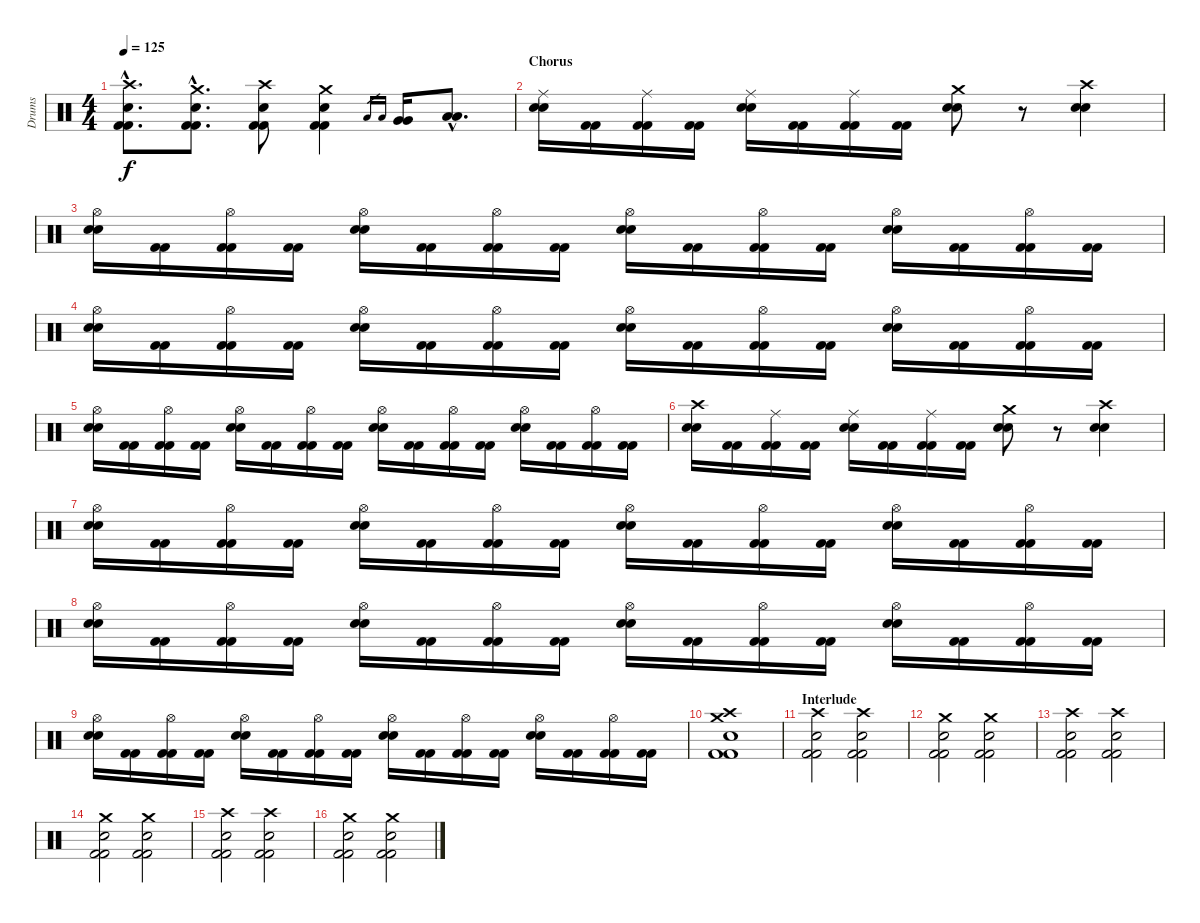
\track ("Drums" "Drums") {instrument percussion}
\staff {score}
\articulation defaults
\ts (4 4)
\tempo 125
\clef neutral
\ks c
("Crash high (hit)"{hac} "Snare (hit) 2"{hac} "Kick (hit) 2"{hac} "Kick (hit) 2"{hac}).8{d dy f} ("Crash medium (hit)"{hac} "Snare (hit) 2"{hac} "Kick (hit) 2"{hac} "Kick (hit) 2"{hac}).8{d} ("Crash high (hit)" "Snare (hit) 2" "Kick (hit) 2" "Kick (hit) 2").8 ("Crash medium (hit)" "Snare (hit) 2" "Kick (hit) 2" "Kick (hit) 2").4 "Low Floor Tom (hit)".16{gr} "Low Floor Tom (hit)".16{gr} ("Very Low Tom (hit)" "Very Low Tom (hit)").16 ("Low Tom (hit)"{hac} "Low Tom (hit)"{hac}).8{d} |
\section ("" "Chorus")
("Ride (middle)" "Snare (hit) 2" "Snare (hit) 2").16 ("Kick (hit) 2" "Kick (hit) 2").16 ("Ride (middle)" "Kick (hit) 2" "Kick (hit) 2").16 ("Kick (hit) 2" "Kick (hit) 2").16 ("Ride (middle)" "Snare (hit) 2" "Snare (hit) 2").16 ("Kick (hit) 2" "Kick (hit) 2").16 ("Ride (middle)" "Kick (hit) 2" "Kick (hit) 2").16 ("Kick (hit) 2" "Kick (hit) 2").16 ("Crash medium (hit)" "Snare (hit) 2" "Snare (hit) 2").8 r.8 ("Crash high (hit)" "Snare (hit) 2" "Snare (hit) 2").4 |
("Hi-Hat (open)" "Snare (hit) 2" "Snare (hit) 2").16 ("Kick (hit) 2" "Kick (hit) 2").16 ("Hi-Hat (open)" "Kick (hit) 2" "Kick (hit) 2").16 ("Kick (hit) 2" "Kick (hit) 2").16 ("Hi-Hat (open)" "Snare (hit) 2" "Snare (hit) 2").16 ("Kick (hit) 2" "Kick (hit) 2").16 ("Hi-Hat (open)" "Kick (hit) 2" "Kick (hit) 2").16 ("Kick (hit) 2" "Kick (hit) 2").16 ("Hi-Hat (open)" "Snare (hit) 2" "Snare (hit) 2").16 ("Kick (hit) 2" "Kick (hit) 2").16 ("Hi-Hat (open)" "Kick (hit) 2" "Kick (hit) 2").16 ("Kick (hit) 2" "Kick (hit) 2").16 ("Hi-Hat (open)" "Snare (hit) 2" "Snare (hit) 2").16 ("Kick (hit) 2" "Kick (hit) 2").16 ("Hi-Hat (open)" "Kick (hit) 2" "Kick (hit) 2").16 ("Kick (hit) 2" "Kick (hit) 2").16 |
("Hi-Hat (open)" "Snare (hit) 2" "Snare (hit) 2").16 ("Kick (hit) 2" "Kick (hit) 2").16 ("Hi-Hat (open)" "Kick (hit) 2" "Kick (hit) 2").16 ("Kick (hit) 2" "Kick (hit) 2").16 ("Hi-Hat (open)" "Snare (hit) 2" "Snare (hit) 2").16 ("Kick (hit) 2" "Kick (hit) 2").16 ("Hi-Hat (open)" "Kick (hit) 2" "Kick (hit) 2").16 ("Kick (hit) 2" "Kick (hit) 2").16 ("Hi-Hat (open)" "Snare (hit) 2" "Snare (hit) 2").16 ("Kick (hit) 2" "Kick (hit) 2").16 ("Hi-Hat (open)" "Kick (hit) 2" "Kick (hit) 2").16 ("Kick (hit) 2" "Kick (hit) 2").16 ("Hi-Hat (open)" "Snare (hit) 2" "Snare (hit) 2").16 ("Kick (hit) 2" "Kick (hit) 2").16 ("Hi-Hat (open)" "Kick (hit) 2" "Kick (hit) 2").16 ("Kick (hit) 2" "Kick (hit) 2").16 |
("Hi-Hat (open)" "Snare (hit) 2" "Snare (hit) 2").16 ("Kick (hit) 2" "Kick (hit) 2").16 ("Hi-Hat (open)" "Kick (hit) 2" "Kick (hit) 2").16 ("Kick (hit) 2" "Kick (hit) 2").16 ("Hi-Hat (open)" "Snare (hit) 2" "Snare (hit) 2").16 ("Kick (hit) 2" "Kick (hit) 2").16 ("Hi-Hat (open)" "Kick (hit) 2" "Kick (hit) 2").16 ("Kick (hit) 2" "Kick (hit) 2").16 ("Hi-Hat (open)" "Snare (hit) 2" "Snare (hit) 2").16 ("Kick (hit) 2" "Kick (hit) 2").16 ("Hi-Hat (open)" "Kick (hit) 2" "Kick (hit) 2").16 ("Kick (hit) 2" "Kick (hit) 2").16 ("Hi-Hat (open)" "Snare (hit) 2" "Snare (hit) 2").16 ("Kick (hit) 2" "Kick (hit) 2").16 ("Hi-Hat (open)" "Kick (hit) 2" "Kick (hit) 2").16 ("Kick (hit) 2" "Kick (hit) 2").16 |
("Crash high (hit)" "Snare (hit) 2" "Snare (hit) 2").16 ("Kick (hit) 2" "Kick (hit) 2").16 ("Ride (middle)" "Kick (hit) 2" "Kick (hit) 2").16 ("Kick (hit) 2" "Kick (hit) 2").16 ("Ride (middle)" "Snare (hit) 2" "Snare (hit) 2").16 ("Kick (hit) 2" "Kick (hit) 2").16 ("Ride (middle)" "Kick (hit) 2" "Kick (hit) 2").16 ("Kick (hit) 2" "Kick (hit) 2").16 ("Crash medium (hit)" "Snare (hit) 2" "Snare (hit) 2").8 r.8 ("Crash high (hit)" "Snare (hit) 2" "Snare (hit) 2").4 |
("Hi-Hat (open)" "Snare (hit) 2" "Snare (hit) 2").16 ("Kick (hit) 2" "Kick (hit) 2").16 ("Hi-Hat (open)" "Kick (hit) 2" "Kick (hit) 2").16 ("Kick (hit) 2" "Kick (hit) 2").16 ("Hi-Hat (open)" "Snare (hit) 2" "Snare (hit) 2").16 ("Kick (hit) 2" "Kick (hit) 2").16 ("Hi-Hat (open)" "Kick (hit) 2" "Kick (hit) 2").16 ("Kick (hit) 2" "Kick (hit) 2").16 ("Hi-Hat (open)" "Snare (hit) 2" "Snare (hit) 2").16 ("Kick (hit) 2" "Kick (hit) 2").16 ("Hi-Hat (open)" "Kick (hit) 2" "Kick (hit) 2").16 ("Kick (hit) 2" "Kick (hit) 2").16 ("Hi-Hat (open)" "Snare (hit) 2" "Snare (hit) 2").16 ("Kick (hit) 2" "Kick (hit) 2").16 ("Hi-Hat (open)" "Kick (hit) 2" "Kick (hit) 2").16 ("Kick (hit) 2" "Kick (hit) 2").16 |
("Hi-Hat (open)" "Snare (hit) 2" "Snare (hit) 2").16 ("Kick (hit) 2" "Kick (hit) 2").16 ("Hi-Hat (open)" "Kick (hit) 2" "Kick (hit) 2").16 ("Kick (hit) 2" "Kick (hit) 2").16 ("Hi-Hat (open)" "Snare (hit) 2" "Snare (hit) 2").16 ("Kick (hit) 2" "Kick (hit) 2").16 ("Hi-Hat (open)" "Kick (hit) 2" "Kick (hit) 2").16 ("Kick (hit) 2" "Kick (hit) 2").16 ("Hi-Hat (open)" "Snare (hit) 2" "Snare (hit) 2").16 ("Kick (hit) 2" "Kick (hit) 2").16 ("Hi-Hat (open)" "Kick (hit) 2" "Kick (hit) 2").16 ("Kick (hit) 2" "Kick (hit) 2").16 ("Hi-Hat (open)" "Snare (hit) 2" "Snare (hit) 2").16 ("Kick (hit) 2" "Kick (hit) 2").16 ("Hi-Hat (open)" "Kick (hit) 2" "Kick (hit) 2").16 ("Kick (hit) 2" "Kick (hit) 2").16 |
("Hi-Hat (open)" "Snare (hit) 2" "Snare (hit) 2").16 ("Kick (hit) 2" "Kick (hit) 2").16 ("Hi-Hat (open)" "Kick (hit) 2" "Kick (hit) 2").16 ("Kick (hit) 2" "Kick (hit) 2").16 ("Hi-Hat (open)" "Snare (hit) 2" "Snare (hit) 2").16 ("Kick (hit) 2" "Kick (hit) 2").16 ("Hi-Hat (open)" "Kick (hit) 2" "Kick (hit) 2").16 ("Kick (hit) 2" "Kick (hit) 2").16 ("Hi-Hat (open)" "Snare (hit) 2" "Snare (hit) 2").16 ("Kick (hit) 2" "Kick (hit) 2").16 ("Hi-Hat (open)" "Kick (hit) 2" "Kick (hit) 2").16 ("Kick (hit) 2" "Kick (hit) 2").16 ("Hi-Hat (open)" "Snare (hit) 2" "Snare (hit) 2").16 ("Kick (hit) 2" "Kick (hit) 2").16 ("Hi-Hat (open)" "Kick (hit) 2" "Kick (hit) 2").16 ("Kick (hit) 2" "Kick (hit) 2").16 |
("Crash high (hit)" "Crash medium (hit)" "Snare (hit) 2" "Kick (hit) 2" "Kick (hit) 2").1 |
\section ("" "Interlude")
("Crash high (hit)" "Snare (hit) 2" "Kick (hit) 2" "Kick (hit) 2").2 ("Crash high (hit)" "Snare (hit) 2" "Kick (hit) 2" "Kick (hit) 2").2 |
("Crash medium (hit)" "Snare (hit) 2" "Kick (hit) 2" "Kick (hit) 2").2 ("Crash medium (hit)" "Snare (hit) 2" "Kick (hit) 2" "Kick (hit) 2").2 |
("Crash high (hit)" "Snare (hit) 2" "Kick (hit) 2" "Kick (hit) 2").2 ("Crash high (hit)" "Snare (hit) 2" "Kick (hit) 2" "Kick (hit) 2").2 |
("Crash medium (hit)" "Snare (hit) 2" "Kick (hit) 2" "Kick (hit) 2").2 ("Crash medium (hit)" "Snare (hit) 2" "Kick (hit) 2" "Kick (hit) 2").2 |
("Crash high (hit)" "Snare (hit) 2" "Kick (hit) 2" "Kick (hit) 2").2 ("Crash high (hit)" "Snare (hit) 2" "Kick (hit) 2" "Kick (hit) 2").2 |
("Crash medium (hit)" "Snare (hit) 2" "Kick (hit) 2" "Kick (hit) 2").2 ("Crash medium (hit)" "Snare (hit) 2" "Kick (hit) 2" "Kick (hit) 2").2
